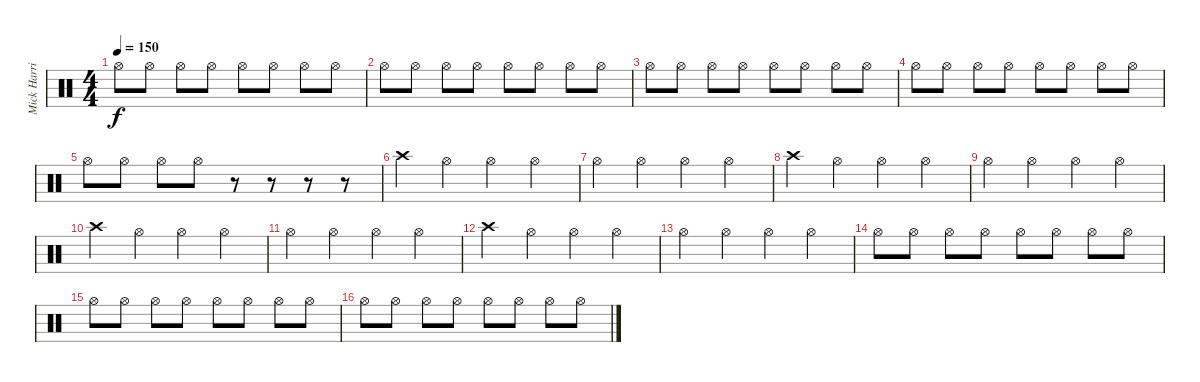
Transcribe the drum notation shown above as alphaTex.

\track ("Mick Harris" "Mick Harri") {instrument percussion}
\staff {score}
\articulation defaults
\ts (4 4)
\tempo 150
\clef neutral
\ks c "Hi-Hat (open)".8{dy f} "Hi-Hat (open)".8 "Hi-Hat (open)".8 "Hi-Hat (open)".8 "Hi-Hat (open)".8 "Hi-Hat (open)".8 "Hi-Hat (open)".8 "Hi-Hat (open)".8
|
"Hi-Hat (open)".8 "Hi-Hat (open)".8 "Hi-Hat (open)".8 "Hi-Hat (open)".8 "Hi-Hat (open)".8 "Hi-Hat (open)".8 "Hi-Hat (open)".8 "Hi-Hat (open)".8 |
"Hi-Hat (open)".8 "Hi-Hat (open)".8 "Hi-Hat (open)".8 "Hi-Hat (open)".8 "Hi-Hat (open)".8 "Hi-Hat (open)".8 "Hi-Hat (open)".8 "Hi-Hat (open)".8 |
"Hi-Hat (open)".8 "Hi-Hat (open)".8 "Hi-Hat (open)".8 "Hi-Hat (open)".8 "Hi-Hat (open)".8 "Hi-Hat (open)".8 "Hi-Hat (open)".8 "Hi-Hat (open)".8 |
"Hi-Hat (open)".8 "Hi-Hat (open)".8 "Hi-Hat (open)".8 "Hi-Hat (open)".8 r.8 r.8 r.8 r.8 |
"Crash high (hit)".4 "Hi-Hat (open)".4 "Hi-Hat (open)".4 "Hi-Hat (open)".4 |
"Hi-Hat (open)".4 "Hi-Hat (open)".4 "Hi-Hat (open)".4 "Hi-Hat (open)".4 |
"Crash high (hit)".4 "Hi-Hat (open)".4 "Hi-Hat (open)".4 "Hi-Hat (open)".4 |
"Hi-Hat (open)".4 "Hi-Hat (open)".4 "Hi-Hat (open)".4 "Hi-Hat (open)".4 |
"Crash high (hit)".4 "Hi-Hat (open)".4 "Hi-Hat (open)".4 "Hi-Hat (open)".4 |
"Hi-Hat (open)".4 "Hi-Hat (open)".4 "Hi-Hat (open)".4 "Hi-Hat (open)".4 |
"Crash high (hit)".4 "Hi-Hat (open)".4 "Hi-Hat (open)".4 "Hi-Hat (open)".4 |
"Hi-Hat (open)".4 "Hi-Hat (open)".4 "Hi-Hat (open)".4 "Hi-Hat (open)".4 |
"Hi-Hat (open)".8 "Hi-Hat (open)".8 "Hi-Hat (open)".8 "Hi-Hat (open)".8 "Hi-Hat (open)".8 "Hi-Hat (open)".8 "Hi-Hat (open)".8 "Hi-Hat (open)".8 |
"Hi-Hat (open)".8 "Hi-Hat (open)".8 "Hi-Hat (open)".8 "Hi-Hat (open)".8 "Hi-Hat (open)".8 "Hi-Hat (open)".8 "Hi-Hat (open)".8 "Hi-Hat (open)".8 |
"Hi-Hat (open)".8 "Hi-Hat (open)".8 "Hi-Hat (open)".8 "Hi-Hat (open)".8 "Hi-Hat (open)".8 "Hi-Hat (open)".8 "Hi-Hat (open)".8 "Hi-Hat (open)".8
